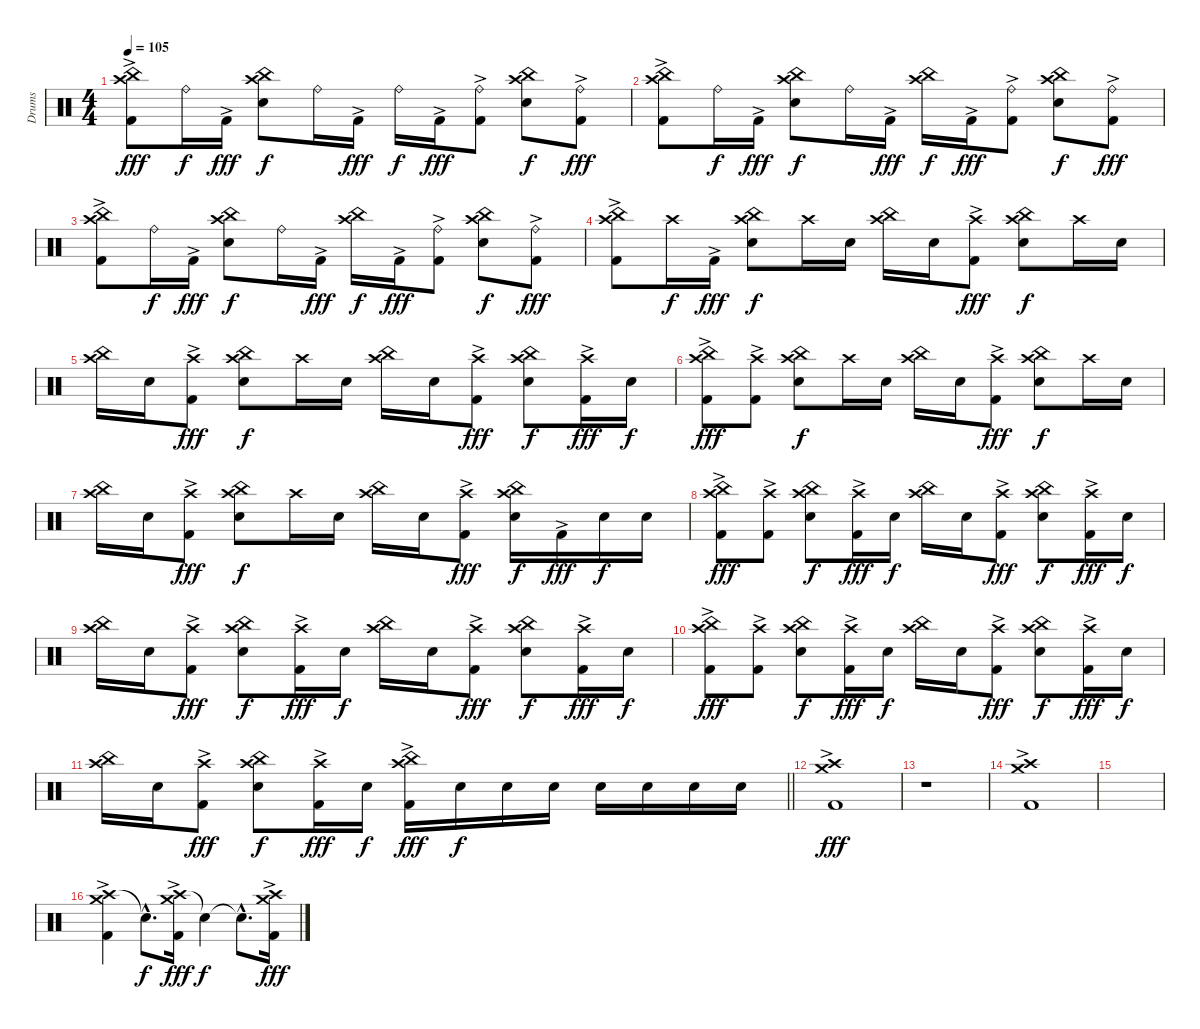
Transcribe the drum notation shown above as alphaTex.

\track ("Drums" "Drums") {instrument percussion}
\staff {score}
\articulation defaults
\ts (4 4)
\tempo 105
\clef neutral
\ks aminor
("Crash high (hit)" "China (hit)" "Kick (hit) 2"{ac}).8{dy fff} "Ride (bell)".16{dy f} "Kick (hit) 2"{ac}.16{dy fff} ("Crash high (hit)" "China (hit)" "Snare (hit) 2").8{dy f} "Ride (bell)".16 "Kick (hit) 2"{ac}.16{dy fff} "Ride (bell)".16{dy f} "Kick (hit) 2"{ac}.16{dy fff} ("Ride (bell)" "Kick (hit) 2"{ac}).8 ("Crash high (hit)" "China (hit)" "Snare (hit) 2").8{dy f} ("Ride (bell)" "Kick (hit) 2"{ac}).8{dy fff} |
("Crash high (hit)" "China (hit)" "Kick (hit) 2"{ac}).8 "Ride (bell)".16{dy f} "Kick (hit) 2"{ac}.16{dy fff} ("Crash high (hit)" "China (hit)" "Snare (hit) 2").8{dy f} "Ride (bell)".16 "Kick (hit) 2"{ac}.16{dy fff} ("Crash high (hit)" "China (hit)").16{dy f} "Kick (hit) 2"{ac}.16{dy fff} ("Ride (bell)" "Kick (hit) 2"{ac}).8 ("Crash high (hit)" "China (hit)" "Snare (hit) 2").8{dy f} ("Ride (bell)" "Kick (hit) 2"{ac}).8{dy fff} |
("Crash high (hit)" "China (hit)" "Kick (hit) 2"{ac}).8 "Ride (bell)".16{dy f} "Kick (hit) 2"{ac}.16{dy fff} ("Crash high (hit)" "China (hit)" "Snare (hit) 2").8{dy f} "Ride (bell)".16 "Kick (hit) 2"{ac}.16{dy fff} ("Crash high (hit)" "China (hit)").16{dy f} "Kick (hit) 2"{ac}.16{dy fff} ("Ride (bell)" "Kick (hit) 2"{ac}).8 ("Crash high (hit)" "China (hit)" "Snare (hit) 2").8{dy f} ("Ride (bell)" "Kick (hit) 2"{ac}).8{dy fff} |
("Crash high (hit)" "China (hit)" "Kick (hit) 2"{ac}).8 "Crash high (hit)".16{dy f} "Kick (hit) 2"{ac}.16{dy fff} ("Crash high (hit)" "China (hit)" "Snare (hit) 2").8{dy f} "Crash high (hit)".16 "Snare (hit) 2".16 ("Crash high (hit)" "China (hit)").16 "Snare (hit) 2".16 ("Crash high (hit)" "Kick (hit) 2"{ac}).8{dy fff} ("Crash high (hit)" "China (hit)" "Snare (hit) 2").8{dy f} "Crash high (hit)".16 "Snare (hit) 2".16 |
("Crash high (hit)" "China (hit)").16 "Snare (hit) 2".16 ("Crash high (hit)" "Kick (hit) 2"{ac}).8{dy fff} ("Crash high (hit)" "China (hit)" "Snare (hit) 2").8{dy f} "Crash high (hit)".16 "Snare (hit) 2".16 ("Crash high (hit)" "China (hit)").16 "Snare (hit) 2".16 ("Crash high (hit)" "Kick (hit) 2"{ac}).8{dy fff} ("Crash high (hit)" "China (hit)" "Snare (hit) 2").8{dy f} ("Crash high (hit)" "Kick (hit) 2"{ac}).16{dy fff} "Snare (hit) 2".16{dy f} |
("Crash high (hit)" "China (hit)" "Kick (hit) 2"{ac}).8{dy fff} ("Crash high (hit)" "Kick (hit) 2"{ac}).8 ("Crash high (hit)" "China (hit)" "Snare (hit) 2").8{dy f} "Crash high (hit)".16 "Snare (hit) 2".16 ("Crash high (hit)" "China (hit)").16 "Snare (hit) 2".16 ("Crash high (hit)" "Kick (hit) 2"{ac}).8{dy fff} ("Crash high (hit)" "China (hit)" "Snare (hit) 2").8{dy f} "Crash high (hit)".16 "Snare (hit) 2".16 |
("Crash high (hit)" "China (hit)").16 "Snare (hit) 2".16 ("Crash high (hit)" "Kick (hit) 2"{ac}).8{dy fff} ("Crash high (hit)" "China (hit)" "Snare (hit) 2").8{dy f} "Crash high (hit)".16 "Snare (hit) 2".16 ("Crash high (hit)" "China (hit)").16 "Snare (hit) 2".16 ("Crash high (hit)" "Kick (hit) 2"{ac}).8{dy fff} ("Crash high (hit)" "China (hit)" "Snare (hit) 2").16{dy f} "Kick (hit) 2"{ac}.16{dy fff} "Snare (hit) 2".16{dy f} "Snare (hit) 2".16 |
("Crash high (hit)" "China (hit)" "Kick (hit) 2"{ac}).8{dy fff} ("Crash high (hit)" "Kick (hit) 2"{ac}).8 ("Crash high (hit)" "China (hit)" "Snare (hit) 2").8{dy f} ("Crash high (hit)" "Kick (hit) 2"{ac}).16{dy fff} "Snare (hit) 2".16{dy f} ("Crash high (hit)" "China (hit)").16 "Snare (hit) 2".16 ("Crash high (hit)" "Kick (hit) 2"{ac}).8{dy fff} ("Crash high (hit)" "China (hit)" "Snare (hit) 2").8{dy f} ("Crash high (hit)" "Kick (hit) 2"{ac}).16{dy fff} "Snare (hit) 2".16{dy f} |
("Crash high (hit)" "China (hit)").16 "Snare (hit) 2".16 ("Crash high (hit)" "Kick (hit) 2"{ac}).8{dy fff} ("Crash high (hit)" "China (hit)" "Snare (hit) 2").8{dy f} ("Crash high (hit)" "Kick (hit) 2"{ac}).16{dy fff} "Snare (hit) 2".16{dy f} ("Crash high (hit)" "China (hit)").16 "Snare (hit) 2".16 ("Crash high (hit)" "Kick (hit) 2"{ac}).8{dy fff} ("Crash high (hit)" "China (hit)" "Snare (hit) 2").8{dy f} ("Crash high (hit)" "Kick (hit) 2"{ac}).16{dy fff} "Snare (hit) 2".16{dy f} |
("Crash high (hit)" "China (hit)" "Kick (hit) 2"{ac}).8{dy fff} ("Crash high (hit)" "Kick (hit) 2"{ac}).8 ("Crash high (hit)" "China (hit)" "Snare (hit) 2").8{dy f} ("Crash high (hit)" "Kick (hit) 2"{ac}).16{dy fff} "Snare (hit) 2".16{dy f} ("Crash high (hit)" "China (hit)").16 "Snare (hit) 2".16 ("Crash high (hit)" "Kick (hit) 2"{ac}).8{dy fff} ("Crash high (hit)" "China (hit)" "Snare (hit) 2").8{dy f} ("Crash high (hit)" "Kick (hit) 2"{ac}).16{dy fff} "Snare (hit) 2".16{dy f} |
\barLineRight lightlight
("Crash high (hit)" "China (hit)").16 "Snare (hit) 2".16 ("Crash high (hit)" "Kick (hit) 2"{ac}).8{dy fff} ("Crash high (hit)" "China (hit)" "Snare (hit) 2").8{dy f} ("Crash high (hit)" "Kick (hit) 2"{ac}).16{dy fff} "Snare (hit) 2".16{dy f} ("Crash high (hit)" "China (hit)" "Kick (hit) 2"{ac}).16{dy fff} "Snare (hit) 2".16{dy f} "Snare (hit) 2".16 "Snare (hit) 2".16 "Snare (hit) 2".16 "Snare (hit) 2".16 "Snare (hit) 2".16 "Snare (hit) 2".16 |
("Crash high (hit)" "Crash medium (hit)" "Kick (hit) 2"{ac}).1{dy fff} |
r.1 |
("Crash high (hit)" "Crash medium (hit)" "Kick (hit) 2"{ac}).1 |
|
("Crash high (hit)" "Crash medium (hit)" "Kick (hit) 2"{ac}).4 "Snare (hit)"{hac t}.8{d dy f} ("Crash high (hit)" "Crash medium (hit)" "Kick (hit) 2"{ac}).16{dy fff} "Snare (hit)"{t}.4{dy f} "Snare (hit)"{hac t}.8{d} ("Crash high (hit)" "Crash medium (hit)" "Kick (hit) 2"{ac}).16{dy fff}
